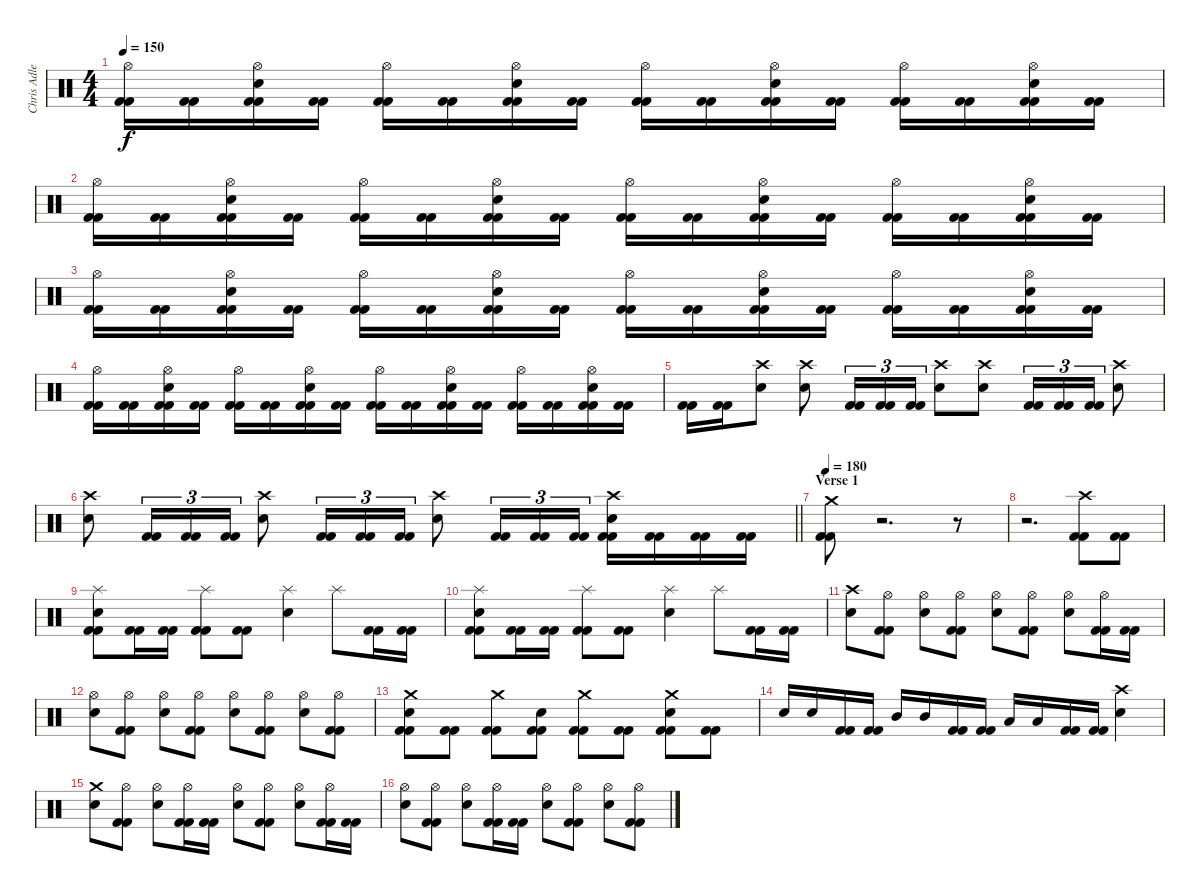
\track ("Chris Adler" "Chris Adle") {instrument percussion}
\staff {score}
\articulation defaults
\ts (4 4)
\tempo 150
\clef neutral
\ks c
("Hi-Hat (open)" "Kick (hit) 2" "Kick (hit) 2").16{dy f} ("Kick (hit) 2" "Kick (hit) 2").16 ("Hi-Hat (open)" "Electric Snare (hit)" "Kick (hit) 2" "Kick (hit) 2").16 ("Kick (hit) 2" "Kick (hit) 2").16 ("Hi-Hat (open)" "Kick (hit) 2" "Kick (hit) 2").16 ("Kick (hit) 2" "Kick (hit) 2").16 ("Hi-Hat (open)" "Electric Snare (hit)" "Kick (hit) 2" "Kick (hit) 2").16 ("Kick (hit) 2" "Kick (hit) 2").16 ("Hi-Hat (open)" "Kick (hit) 2" "Kick (hit) 2").16 ("Kick (hit) 2" "Kick (hit) 2").16 ("Hi-Hat (open)" "Electric Snare (hit)" "Kick (hit) 2" "Kick (hit) 2").16 ("Kick (hit) 2" "Kick (hit) 2").16 ("Hi-Hat (open)" "Kick (hit) 2" "Kick (hit) 2").16 ("Kick (hit) 2" "Kick (hit) 2").16 ("Hi-Hat (open)" "Electric Snare (hit)" "Kick (hit) 2" "Kick (hit) 2").16 ("Kick (hit) 2" "Kick (hit) 2").16 |
("Hi-Hat (open)" "Kick (hit) 2" "Kick (hit) 2").16 ("Kick (hit) 2" "Kick (hit) 2").16 ("Hi-Hat (open)" "Electric Snare (hit)" "Kick (hit) 2" "Kick (hit) 2").16 ("Kick (hit) 2" "Kick (hit) 2").16 ("Hi-Hat (open)" "Kick (hit) 2" "Kick (hit) 2").16 ("Kick (hit) 2" "Kick (hit) 2").16 ("Hi-Hat (open)" "Electric Snare (hit)" "Kick (hit) 2" "Kick (hit) 2").16 ("Kick (hit) 2" "Kick (hit) 2").16 ("Hi-Hat (open)" "Kick (hit) 2" "Kick (hit) 2").16 ("Kick (hit) 2" "Kick (hit) 2").16 ("Hi-Hat (open)" "Electric Snare (hit)" "Kick (hit) 2" "Kick (hit) 2").16 ("Kick (hit) 2" "Kick (hit) 2").16 ("Hi-Hat (open)" "Kick (hit) 2" "Kick (hit) 2").16 ("Kick (hit) 2" "Kick (hit) 2").16 ("Hi-Hat (open)" "Electric Snare (hit)" "Kick (hit) 2" "Kick (hit) 2").16 ("Kick (hit) 2" "Kick (hit) 2").16 |
("Hi-Hat (open)" "Kick (hit) 2" "Kick (hit) 2").16 ("Kick (hit) 2" "Kick (hit) 2").16 ("Hi-Hat (open)" "Electric Snare (hit)" "Kick (hit) 2" "Kick (hit) 2").16 ("Kick (hit) 2" "Kick (hit) 2").16 ("Hi-Hat (open)" "Kick (hit) 2" "Kick (hit) 2").16 ("Kick (hit) 2" "Kick (hit) 2").16 ("Hi-Hat (open)" "Electric Snare (hit)" "Kick (hit) 2" "Kick (hit) 2").16 ("Kick (hit) 2" "Kick (hit) 2").16 ("Hi-Hat (open)" "Kick (hit) 2" "Kick (hit) 2").16 ("Kick (hit) 2" "Kick (hit) 2").16 ("Hi-Hat (open)" "Electric Snare (hit)" "Kick (hit) 2" "Kick (hit) 2").16 ("Kick (hit) 2" "Kick (hit) 2").16 ("Hi-Hat (open)" "Kick (hit) 2" "Kick (hit) 2").16 ("Kick (hit) 2" "Kick (hit) 2").16 ("Hi-Hat (open)" "Electric Snare (hit)" "Kick (hit) 2" "Kick (hit) 2").16 ("Kick (hit) 2" "Kick (hit) 2").16 |
("Hi-Hat (open)" "Kick (hit) 2" "Kick (hit) 2").16 ("Kick (hit) 2" "Kick (hit) 2").16 ("Hi-Hat (open)" "Electric Snare (hit)" "Kick (hit) 2" "Kick (hit) 2").16 ("Kick (hit) 2" "Kick (hit) 2").16 ("Hi-Hat (open)" "Kick (hit) 2" "Kick (hit) 2").16 ("Kick (hit) 2" "Kick (hit) 2").16 ("Hi-Hat (open)" "Electric Snare (hit)" "Kick (hit) 2" "Kick (hit) 2").16 ("Kick (hit) 2" "Kick (hit) 2").16 ("Hi-Hat (open)" "Kick (hit) 2" "Kick (hit) 2").16 ("Kick (hit) 2" "Kick (hit) 2").16 ("Hi-Hat (open)" "Electric Snare (hit)" "Kick (hit) 2" "Kick (hit) 2").16 ("Kick (hit) 2" "Kick (hit) 2").16 ("Hi-Hat (open)" "Kick (hit) 2" "Kick (hit) 2").16 ("Kick (hit) 2" "Kick (hit) 2").16 ("Hi-Hat (open)" "Electric Snare (hit)" "Kick (hit) 2" "Kick (hit) 2").16 ("Kick (hit) 2" "Kick (hit) 2").16 |
("Kick (hit) 2" "Kick (hit) 2").16 ("Kick (hit) 2" "Kick (hit) 2").16 ("Crash high (hit)" "Electric Snare (hit)").8 ("Crash high (hit)" "Electric Snare (hit)").8 ("Kick (hit) 2" "Kick (hit) 2").16{tu (3 2)} ("Kick (hit) 2" "Kick (hit) 2").16{tu (3 2)} ("Kick (hit) 2" "Kick (hit) 2").16{tu (3 2)} ("Crash high (hit)" "Electric Snare (hit)").8 ("Crash high (hit)" "Electric Snare (hit)").8 ("Kick (hit) 2" "Kick (hit) 2").16{tu (3 2)} ("Kick (hit) 2" "Kick (hit) 2").16{tu (3 2)} ("Kick (hit) 2" "Kick (hit) 2").16{tu (3 2)} ("Crash high (hit)" "Electric Snare (hit)").8 |
\barLineRight lightlight
("Crash high (hit)" "Electric Snare (hit)").8 ("Kick (hit) 2" "Kick (hit) 2").16{tu (3 2)} ("Kick (hit) 2" "Kick (hit) 2").16{tu (3 2)} ("Kick (hit) 2" "Kick (hit) 2").16{tu (3 2)} ("Crash high (hit)" "Electric Snare (hit)").8 ("Kick (hit) 2" "Kick (hit) 2").16{tu (3 2)} ("Kick (hit) 2" "Kick (hit) 2").16{tu (3 2)} ("Kick (hit) 2" "Kick (hit) 2").16{tu (3 2)} ("Crash high (hit)" "Electric Snare (hit)").8 ("Kick (hit) 2" "Kick (hit) 2").16{tu (3 2)} ("Kick (hit) 2" "Kick (hit) 2").16{tu (3 2)} ("Kick (hit) 2" "Kick (hit) 2").16{tu (3 2)} ("Crash high (hit)" "Electric Snare (hit)" "Kick (hit) 2" "Kick (hit) 2").16 ("Kick (hit) 2" "Kick (hit) 2").16 ("Kick (hit) 2" "Kick (hit) 2").16 ("Kick (hit) 2" "Kick (hit) 2").16 |
\section ("" "Verse 1")
\tempo 180
("Crash medium (hit)" "Kick (hit) 2" "Kick (hit) 2").8 r.2{d volume 0} r.8 |
r.2{d} ("Crash high (hit)" "Kick (hit) 2" "Kick (hit) 2").8{volume 13} ("Kick (hit) 2" "Kick (hit) 2").8 |
("Splash (hit)" "Electric Snare (hit)" "Kick (hit) 2" "Kick (hit) 2").8 ("Kick (hit) 2" "Kick (hit) 2").16 ("Kick (hit) 2" "Kick (hit) 2").16 ("Splash (hit)" "Kick (hit) 2" "Kick (hit) 2").8 ("Kick (hit) 2" "Kick (hit) 2").8 ("Splash (hit)" "Electric Snare (hit)").4 "Splash (hit)".8 ("Kick (hit) 2" "Kick (hit) 2").16 ("Kick (hit) 2" "Kick (hit) 2").16 |
("Splash (hit)" "Electric Snare (hit)" "Kick (hit) 2" "Kick (hit) 2").8 ("Kick (hit) 2" "Kick (hit) 2").16 ("Kick (hit) 2" "Kick (hit) 2").16 ("Splash (hit)" "Kick (hit) 2" "Kick (hit) 2").8 ("Kick (hit) 2" "Kick (hit) 2").8 ("Splash (hit)" "Electric Snare (hit)").4 "Splash (hit)".8 ("Kick (hit) 2" "Kick (hit) 2").16 ("Kick (hit) 2" "Kick (hit) 2").16 |
("Crash high (hit)" "Electric Snare (hit)").8 ("Hi-Hat (open)" "Kick (hit) 2" "Kick (hit) 2").8 ("Hi-Hat (open)" "Electric Snare (hit)").8 ("Hi-Hat (open)" "Kick (hit) 2" "Kick (hit) 2").8 ("Hi-Hat (open)" "Electric Snare (hit)").8 ("Hi-Hat (open)" "Kick (hit) 2" "Kick (hit) 2").8 ("Hi-Hat (open)" "Electric Snare (hit)").8 ("Hi-Hat (open)" "Kick (hit) 2" "Kick (hit) 2").16 ("Kick (hit) 2" "Kick (hit) 2").16 |
("Hi-Hat (open)" "Electric Snare (hit)").8 ("Hi-Hat (open)" "Kick (hit) 2" "Kick (hit) 2").8 ("Hi-Hat (open)" "Electric Snare (hit)").8 ("Hi-Hat (open)" "Kick (hit) 2" "Kick (hit) 2").8 ("Hi-Hat (open)" "Electric Snare (hit)").8 ("Hi-Hat (open)" "Kick (hit) 2" "Kick (hit) 2").8 ("Hi-Hat (open)" "Electric Snare (hit)").8 ("Hi-Hat (open)" "Kick (hit) 2" "Kick (hit) 2").8 |
("Crash medium (hit)" "Electric Snare (hit)" "Kick (hit) 2" "Kick (hit) 2").8 ("Kick (hit) 2" "Kick (hit) 2").8 ("Crash medium (hit)" "Kick (hit) 2" "Kick (hit) 2").8 ("Electric Snare (hit)" "Kick (hit) 2" "Kick (hit) 2").8 ("Crash medium (hit)" "Kick (hit) 2" "Kick (hit) 2").8 ("Kick (hit) 2" "Kick (hit) 2").8 ("Crash medium (hit)" "Electric Snare (hit)" "Kick (hit) 2" "Kick (hit) 2").8 ("Kick (hit) 2" "Kick (hit) 2").8 |
"Electric Snare (hit)".16 "Electric Snare (hit)".16 ("Kick (hit) 2" "Kick (hit) 2").16 ("Kick (hit) 2" "Kick (hit) 2").16 "Mid Tom (hit)".16 "Mid Tom (hit)".16 ("Kick (hit) 2" "Kick (hit) 2").16 ("Kick (hit) 2" "Kick (hit) 2").16 "Low Tom (hit)".16 "Low Tom (hit)".16 ("Kick (hit) 2" "Kick (hit) 2").16 ("Kick (hit) 2" "Kick (hit) 2").16 ("Crash high (hit)" "Electric Snare (hit)").4 |
("Crash medium (hit)" "Electric Snare (hit)").8 ("Hi-Hat (open)" "Kick (hit) 2" "Kick (hit) 2").8 ("Hi-Hat (open)" "Electric Snare (hit)").8 ("Hi-Hat (open)" "Kick (hit) 2" "Kick (hit) 2").16 ("Kick (hit) 2" "Kick (hit) 2").16 ("Hi-Hat (open)" "Electric Snare (hit)").8 ("Hi-Hat (open)" "Kick (hit) 2" "Kick (hit) 2").8 ("Hi-Hat (open)" "Electric Snare (hit)").8 ("Hi-Hat (open)" "Kick (hit) 2" "Kick (hit) 2").16 ("Kick (hit) 2" "Kick (hit) 2").16 |
("Hi-Hat (open)" "Electric Snare (hit)").8 ("Hi-Hat (open)" "Kick (hit) 2" "Kick (hit) 2").8 ("Hi-Hat (open)" "Electric Snare (hit)").8 ("Hi-Hat (open)" "Kick (hit) 2" "Kick (hit) 2").16 ("Kick (hit) 2" "Kick (hit) 2").16 ("Hi-Hat (open)" "Electric Snare (hit)").8 ("Hi-Hat (open)" "Kick (hit) 2" "Kick (hit) 2").8 ("Hi-Hat (open)" "Electric Snare (hit)").8 ("Hi-Hat (open)" "Kick (hit) 2" "Kick (hit) 2").8
